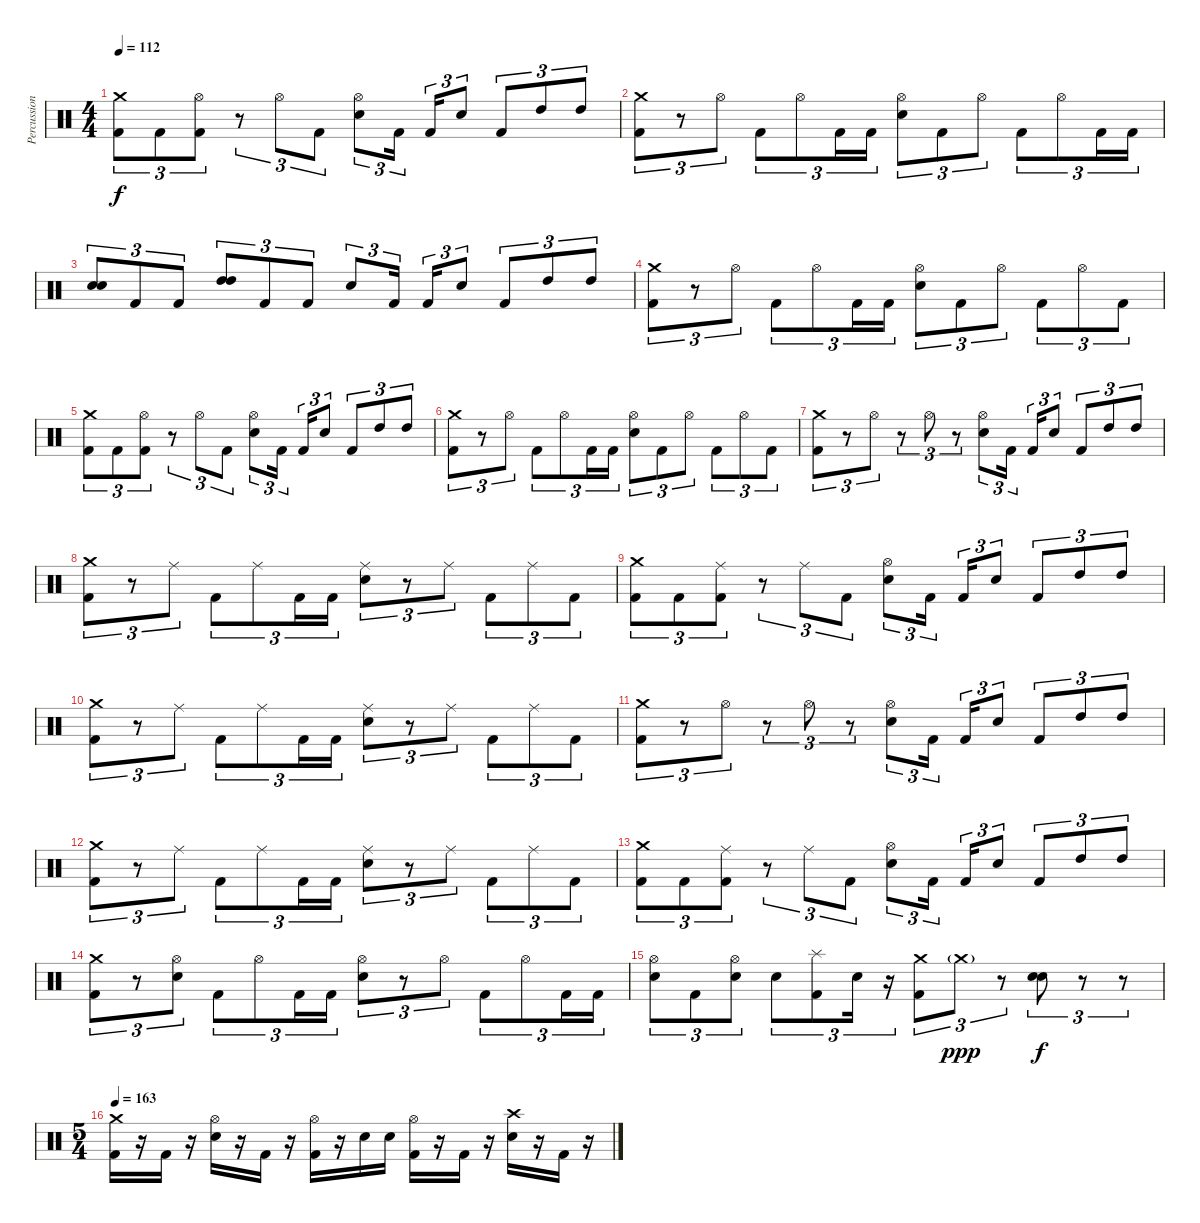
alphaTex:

\track ("Percussion" "Percussion") {instrument percussion}
\staff {score}
\articulation defaults
\ts (4 4)
\tempo 112
\clef neutral
\ks c
("Crash medium (hit)" "Kick (hit) 2").8{tu (3 2) dy f} "Kick (hit) 2".8{tu (3 2)} ("Hi-Hat (open)" "Kick (hit) 2").8{tu (3 2)} r.8{tu (3 2)} "Hi-Hat (open)".8{tu (3 2)} "Kick (hit) 2".8{tu (3 2)} ("Hi-Hat (open)" "Electric Snare (hit)").8{tu (3 2)} "Kick (hit) 2".16{tu (3 2) beam splitsecondary} "Kick (hit) 2".16{tu (3 2)} "Electric Snare (hit)".8{tu (3 2)} "Kick (hit) 2".8{tu (3 2)} "High Tom (hit)".8{tu (3 2)} "High Tom (hit)".8{tu (3 2)} |
("Crash medium (hit)" "Kick (hit) 2").8{tu (3 2)} r.8{tu (3 2)} "Hi-Hat (open)".8{tu (3 2)} "Kick (hit) 2".8{tu (3 2)} "Hi-Hat (open)".8{tu (3 2)} "Kick (hit) 2".16{tu (3 2)} "Kick (hit) 2".16{tu (3 2)} ("Hi-Hat (open)" "Electric Snare (hit)").8{tu (3 2)} "Kick (hit) 2".8{tu (3 2)} "Hi-Hat (open)".8{tu (3 2)} "Kick (hit) 2".8{tu (3 2)} "Hi-Hat (open)".8{tu (3 2)} "Kick (hit) 2".16{tu (3 2)} "Kick (hit) 2".16{tu (3 2)} |
("Electric Snare (hit)" "Electric Snare (hit)").8{tu (3 2) bu 60} "Kick (hit) 2".8{tu (3 2)} "Kick (hit) 2".8{tu (3 2)} ("High Tom (hit)" "High Tom (hit)").8{tu (3 2)} "Kick (hit) 2".8{tu (3 2)} "Kick (hit) 2".8{tu (3 2)} "Electric Snare (hit)".8{tu (3 2)} "Kick (hit) 2".16{tu (3 2) beam splitsecondary} "Kick (hit) 2".16{tu (3 2)} "Electric Snare (hit)".8{tu (3 2)} "Kick (hit) 2".8{tu (3 2)} "High Tom (hit)".8{tu (3 2)} "High Tom (hit)".8{tu (3 2)} |
("Crash medium (hit)" "Kick (hit) 2").8{tu (3 2)} r.8{tu (3 2)} "Hi-Hat (open)".8{tu (3 2)} "Kick (hit) 2".8{tu (3 2)} "Hi-Hat (open)".8{tu (3 2)} "Kick (hit) 2".16{tu (3 2)} "Kick (hit) 2".16{tu (3 2)} ("Hi-Hat (open)" "Electric Snare (hit)").8{tu (3 2)} "Kick (hit) 2".8{tu (3 2)} "Hi-Hat (open)".8{tu (3 2)} "Kick (hit) 2".8{tu (3 2)} "Hi-Hat (open)".8{tu (3 2)} "Kick (hit) 2".8{tu (3 2)} |
("Crash medium (hit)" "Kick (hit) 2").8{tu (3 2)} "Kick (hit) 2".8{tu (3 2)} ("Hi-Hat (open)" "Kick (hit) 2").8{tu (3 2)} r.8{tu (3 2)} "Hi-Hat (open)".8{tu (3 2)} "Kick (hit) 2".8{tu (3 2)} ("Hi-Hat (open)" "Electric Snare (hit)").8{tu (3 2)} "Kick (hit) 2".16{tu (3 2) beam splitsecondary} "Kick (hit) 2".16{tu (3 2)} "Electric Snare (hit)".8{tu (3 2)} "Kick (hit) 2".8{tu (3 2)} "High Tom (hit)".8{tu (3 2)} "High Tom (hit)".8{tu (3 2)} |
("Crash medium (hit)" "Kick (hit) 2").8{tu (3 2)} r.8{tu (3 2)} "Hi-Hat (open)".8{tu (3 2)} "Kick (hit) 2".8{tu (3 2)} "Hi-Hat (open)".8{tu (3 2)} "Kick (hit) 2".16{tu (3 2)} "Kick (hit) 2".16{tu (3 2)} ("Hi-Hat (open)" "Electric Snare (hit)").8{tu (3 2)} "Kick (hit) 2".8{tu (3 2)} "Hi-Hat (open)".8{tu (3 2)} "Kick (hit) 2".8{tu (3 2)} "Hi-Hat (open)".8{tu (3 2)} "Kick (hit) 2".8{tu (3 2)} |
("Crash medium (hit)" "Kick (hit) 2").8{tu (3 2)} r.8{tu (3 2)} "Hi-Hat (open)".8{tu (3 2)} r.8{tu (3 2)} "Hi-Hat (open)".8{tu (3 2)} r.8{tu (3 2)} ("Hi-Hat (open)" "Electric Snare (hit)").8{tu (3 2)} "Kick (hit) 2".16{tu (3 2) beam splitsecondary} "Kick (hit) 2".16{tu (3 2)} "Electric Snare (hit)".8{tu (3 2)} "Kick (hit) 2".8{tu (3 2)} "High Tom (hit)".8{tu (3 2)} "High Tom (hit)".8{tu (3 2)} |
("Crash medium (hit)" "Kick (hit) 2").8{tu (3 2)} r.8{tu (3 2)} "Ride (middle)".8{tu (3 2)} "Kick (hit) 2".8{tu (3 2)} "Ride (middle)".8{tu (3 2)} "Kick (hit) 2".16{tu (3 2)} "Kick (hit) 2".16{tu (3 2)} ("Ride (middle)" "Electric Snare (hit)").8{tu (3 2)} r.8{tu (3 2)} "Ride (middle)".8{tu (3 2)} "Kick (hit) 2".8{tu (3 2)} "Ride (middle)".8{tu (3 2)} "Kick (hit) 2".8{tu (3 2)} |
("Crash medium (hit)" "Kick (hit) 2").8{tu (3 2)} "Kick (hit) 2".8{tu (3 2)} ("Ride (middle)" "Kick (hit) 2").8{tu (3 2)} r.8{tu (3 2)} "Ride (middle)".8{tu (3 2)} "Kick (hit) 2".8{tu (3 2)} ("Hi-Hat (open)" "Electric Snare (hit)").8{tu (3 2)} "Kick (hit) 2".16{tu (3 2) beam splitsecondary} "Kick (hit) 2".16{tu (3 2)} "Electric Snare (hit)".8{tu (3 2)} "Kick (hit) 2".8{tu (3 2)} "High Tom (hit)".8{tu (3 2)} "High Tom (hit)".8{tu (3 2)} |
("Crash medium (hit)" "Kick (hit) 2").8{tu (3 2)} r.8{tu (3 2)} "Ride (middle)".8{tu (3 2)} "Kick (hit) 2".8{tu (3 2)} "Ride (middle)".8{tu (3 2)} "Kick (hit) 2".16{tu (3 2)} "Kick (hit) 2".16{tu (3 2)} ("Ride (middle)" "Electric Snare (hit)").8{tu (3 2)} r.8{tu (3 2)} "Ride (middle)".8{tu (3 2)} "Kick (hit) 2".8{tu (3 2)} "Ride (middle)".8{tu (3 2)} "Kick (hit) 2".8{tu (3 2)} |
("Crash medium (hit)" "Kick (hit) 2").8{tu (3 2)} r.8{tu (3 2)} "Hi-Hat (open)".8{tu (3 2)} r.8{tu (3 2)} "Hi-Hat (open)".8{tu (3 2)} r.8{tu (3 2)} ("Hi-Hat (open)" "Electric Snare (hit)").8{tu (3 2)} "Kick (hit) 2".16{tu (3 2) beam splitsecondary} "Kick (hit) 2".16{tu (3 2)} "Electric Snare (hit)".8{tu (3 2)} "Kick (hit) 2".8{tu (3 2)} "High Tom (hit)".8{tu (3 2)} "High Tom (hit)".8{tu (3 2)} |
("Crash medium (hit)" "Kick (hit) 2").8{tu (3 2)} r.8{tu (3 2)} "Ride (middle)".8{tu (3 2)} "Kick (hit) 2".8{tu (3 2)} "Ride (middle)".8{tu (3 2)} "Kick (hit) 2".16{tu (3 2)} "Kick (hit) 2".16{tu (3 2)} ("Ride (middle)" "Electric Snare (hit)").8{tu (3 2)} r.8{tu (3 2)} "Ride (middle)".8{tu (3 2)} "Kick (hit) 2".8{tu (3 2)} "Ride (middle)".8{tu (3 2)} "Kick (hit) 2".8{tu (3 2)} |
("Crash medium (hit)" "Kick (hit) 2").8{tu (3 2)} "Kick (hit) 2".8{tu (3 2)} ("Ride (middle)" "Kick (hit) 2").8{tu (3 2)} r.8{tu (3 2)} "Ride (middle)".8{tu (3 2)} "Kick (hit) 2".8{tu (3 2)} ("Hi-Hat (open)" "Electric Snare (hit)").8{tu (3 2)} "Kick (hit) 2".16{tu (3 2) beam splitsecondary} "Kick (hit) 2".16{tu (3 2)} "Electric Snare (hit)".8{tu (3 2)} "Kick (hit) 2".8{tu (3 2)} "High Tom (hit)".8{tu (3 2)} "High Tom (hit)".8{tu (3 2)} |
("Crash medium (hit)" "Kick (hit) 2").8{tu (3 2)} r.8{tu (3 2)} ("Hi-Hat (open)" "Electric Snare (hit)").8{tu (3 2)} "Kick (hit) 2".8{tu (3 2)} "Hi-Hat (open)".8{tu (3 2)} "Kick (hit) 2".16{tu (3 2)} "Kick (hit) 2".16{tu (3 2)} ("Hi-Hat (open)" "Electric Snare (hit)").8{tu (3 2)} r.8{tu (3 2)} "Hi-Hat (open)".8{tu (3 2)} "Kick (hit) 2".8{tu (3 2)} "Hi-Hat (open)".8{tu (3 2)} "Kick (hit) 2".16{tu (3 2)} "Kick (hit) 2".16{tu (3 2)} |
("Hi-Hat (open)" "Electric Snare (hit)").8{tu (3 2)} "Kick (hit) 2".8{tu (3 2)} ("Hi-Hat (open)" "Electric Snare (hit)").8{tu (3 2)} "Electric Snare (hit)".8{tu (3 2)} ("Splash (hit)" "Kick (hit) 2").8{tu (3 2)} "Electric Snare (hit)".16{tu (3 2)} r.16{tu (3 2)} ("Crash medium (hit)" "Kick (hit) 2").8{tu (3 2)} "Crash medium (hit)"{g}.8{tu (3 2) dy ppp} r.8{tu (3 2)} ("Electric Snare (hit)" "Electric Snare (hit)").8{tu (3 2) bu 60 dy f} r.8{tu (3 2)} r.8{tu (3 2)} |
\ts (5 4)
\tempo 163
("Crash medium (hit)" "Kick (hit) 2").16 r.16 "Kick (hit) 2".16 r.16 ("Hi-Hat (open)" "Electric Snare (hit)").16 r.16 "Kick (hit) 2".16 r.16 ("Hi-Hat (open)" "Kick (hit) 2").16 r.16 "Electric Snare (hit)".16 "Electric Snare (hit)".16 ("Hi-Hat (open)" "Kick (hit) 2").16 r.16 "Kick (hit) 2".16 r.16 ("Crash high (hit)" "Electric Snare (hit)").16 r.16 "Kick (hit) 2".16 r.16
